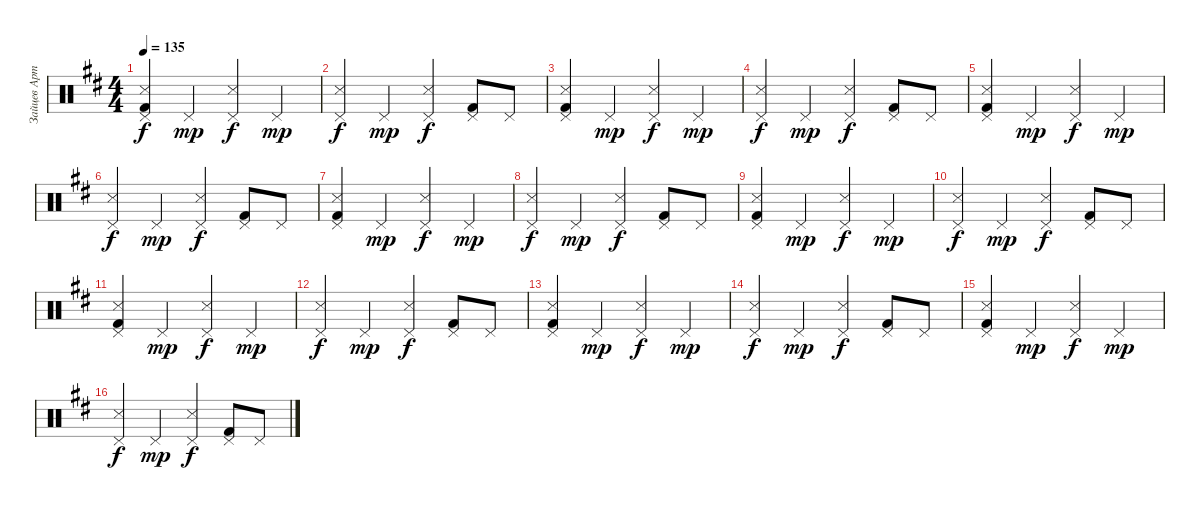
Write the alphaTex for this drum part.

\track ("Зайцев Артём" "Зайцев Арт") {instrument percussion}
\staff {score}
\articulation defaults
\ts (4 4)
\tempo 135
\clef neutral
\ks d
("Kick (hit) 2" "Snare (side stick) 3" "Pedal Hi-Hat (hit)").4{dy f} "Pedal Hi-Hat (hit)".4{dy mp} ("Pedal Hi-Hat (hit)" "Snare (side stick) 3").4{dy f} "Pedal Hi-Hat (hit)".4{dy mp} |
("Pedal Hi-Hat (hit)" "Snare (side stick) 3").4{dy f} "Pedal Hi-Hat (hit)".4{dy mp} ("Pedal Hi-Hat (hit)" "Snare (side stick) 3").4{dy f} ("Pedal Hi-Hat (hit)" "Kick (hit) 2").8 "Pedal Hi-Hat (hit)".8 |
("Kick (hit) 2" "Snare (side stick) 3" "Pedal Hi-Hat (hit)").4 "Pedal Hi-Hat (hit)".4{dy mp} ("Pedal Hi-Hat (hit)" "Snare (side stick) 3").4{dy f} "Pedal Hi-Hat (hit)".4{dy mp} |
("Pedal Hi-Hat (hit)" "Snare (side stick) 3").4{dy f} "Pedal Hi-Hat (hit)".4{dy mp} ("Pedal Hi-Hat (hit)" "Snare (side stick) 3").4{dy f} ("Pedal Hi-Hat (hit)" "Kick (hit) 2").8 "Pedal Hi-Hat (hit)".8 |
("Kick (hit) 2" "Snare (side stick) 3" "Pedal Hi-Hat (hit)").4 "Pedal Hi-Hat (hit)".4{dy mp} ("Pedal Hi-Hat (hit)" "Snare (side stick) 3").4{dy f} "Pedal Hi-Hat (hit)".4{dy mp} |
("Pedal Hi-Hat (hit)" "Snare (side stick) 3").4{dy f} "Pedal Hi-Hat (hit)".4{dy mp} ("Pedal Hi-Hat (hit)" "Snare (side stick) 3").4{dy f} ("Pedal Hi-Hat (hit)" "Kick (hit) 2").8 "Pedal Hi-Hat (hit)".8 |
("Kick (hit) 2" "Snare (side stick) 3" "Pedal Hi-Hat (hit)").4 "Pedal Hi-Hat (hit)".4{dy mp} ("Pedal Hi-Hat (hit)" "Snare (side stick) 3").4{dy f} "Pedal Hi-Hat (hit)".4{dy mp} |
("Pedal Hi-Hat (hit)" "Snare (side stick) 3").4{dy f} "Pedal Hi-Hat (hit)".4{dy mp} ("Pedal Hi-Hat (hit)" "Snare (side stick) 3").4{dy f} ("Pedal Hi-Hat (hit)" "Kick (hit) 2").8 "Pedal Hi-Hat (hit)".8 |
("Kick (hit) 2" "Snare (side stick) 3" "Pedal Hi-Hat (hit)").4 "Pedal Hi-Hat (hit)".4{dy mp} ("Pedal Hi-Hat (hit)" "Snare (side stick) 3").4{dy f} "Pedal Hi-Hat (hit)".4{dy mp} |
("Pedal Hi-Hat (hit)" "Snare (side stick) 3").4{dy f} "Pedal Hi-Hat (hit)".4{dy mp} ("Pedal Hi-Hat (hit)" "Snare (side stick) 3").4{dy f} ("Pedal Hi-Hat (hit)" "Kick (hit) 2").8 "Pedal Hi-Hat (hit)".8 |
("Kick (hit) 2" "Snare (side stick) 3" "Pedal Hi-Hat (hit)").4 "Pedal Hi-Hat (hit)".4{dy mp} ("Pedal Hi-Hat (hit)" "Snare (side stick) 3").4{dy f} "Pedal Hi-Hat (hit)".4{dy mp} |
("Pedal Hi-Hat (hit)" "Snare (side stick) 3").4{dy f} "Pedal Hi-Hat (hit)".4{dy mp} ("Pedal Hi-Hat (hit)" "Snare (side stick) 3").4{dy f} ("Pedal Hi-Hat (hit)" "Kick (hit) 2").8 "Pedal Hi-Hat (hit)".8 |
("Kick (hit) 2" "Snare (side stick) 3" "Pedal Hi-Hat (hit)").4 "Pedal Hi-Hat (hit)".4{dy mp} ("Pedal Hi-Hat (hit)" "Snare (side stick) 3").4{dy f} "Pedal Hi-Hat (hit)".4{dy mp} |
("Pedal Hi-Hat (hit)" "Snare (side stick) 3").4{dy f} "Pedal Hi-Hat (hit)".4{dy mp} ("Pedal Hi-Hat (hit)" "Snare (side stick) 3").4{dy f} ("Pedal Hi-Hat (hit)" "Kick (hit) 2").8 "Pedal Hi-Hat (hit)".8 |
("Kick (hit) 2" "Snare (side stick) 3" "Pedal Hi-Hat (hit)").4 "Pedal Hi-Hat (hit)".4{dy mp} ("Pedal Hi-Hat (hit)" "Snare (side stick) 3").4{dy f} "Pedal Hi-Hat (hit)".4{dy mp} |
("Pedal Hi-Hat (hit)" "Snare (side stick) 3").4{dy f} "Pedal Hi-Hat (hit)".4{dy mp} ("Pedal Hi-Hat (hit)" "Snare (side stick) 3").4{dy f} ("Pedal Hi-Hat (hit)" "Kick (hit) 2").8 "Pedal Hi-Hat (hit)".8
